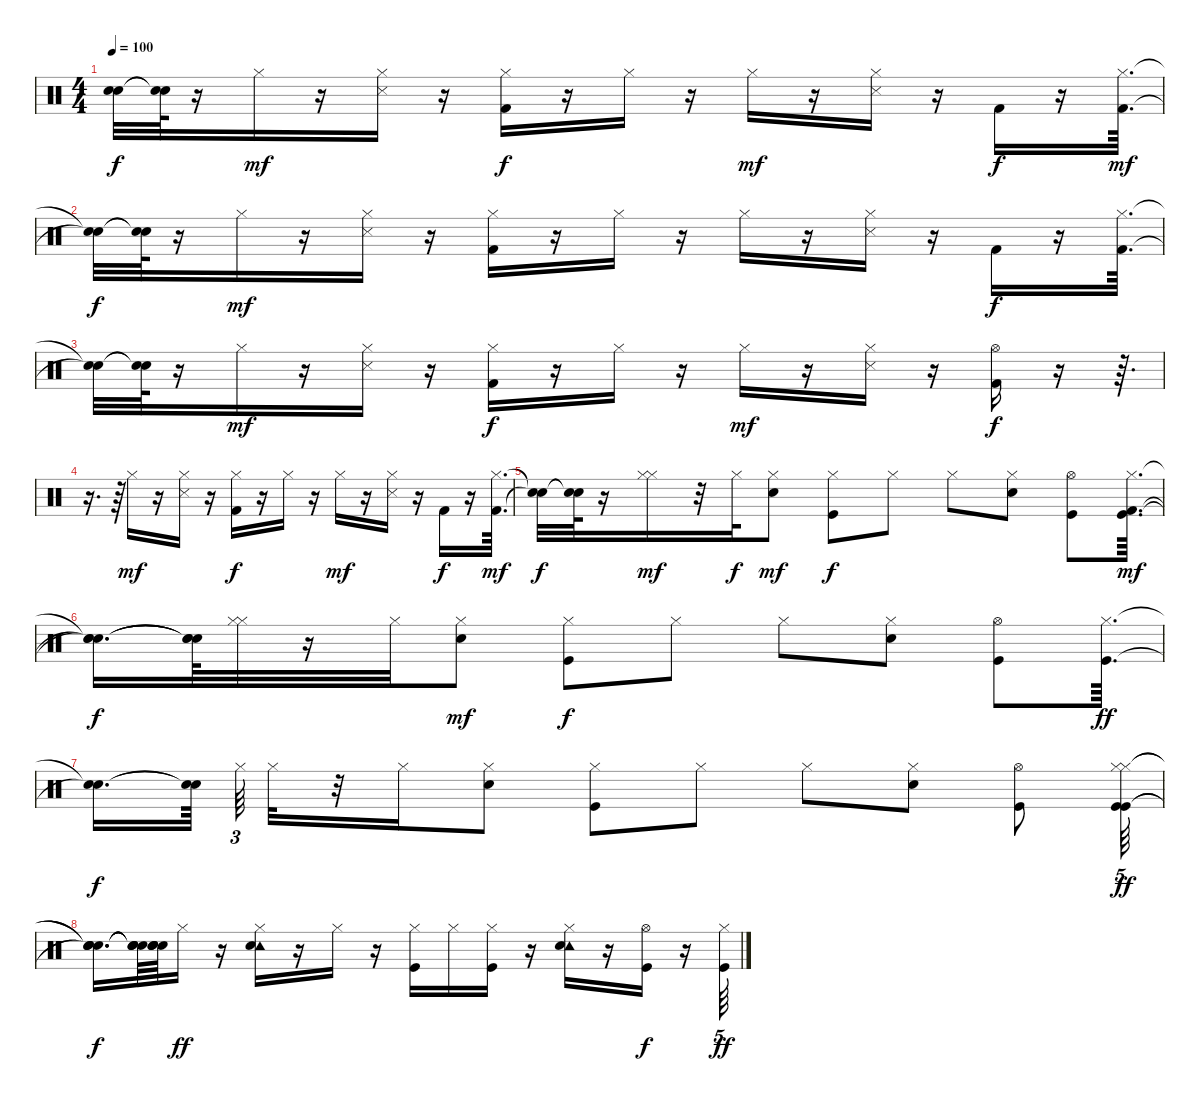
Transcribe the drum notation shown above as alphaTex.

\track "" {instrument percussion}
\staff {score}
\articulation defaults
\ts (4 4)
\tempo 100
\clef neutral
\ks c
("Snare (hit)"{t} "Snare (hit)"{t}).32{dy f} ("Snare (hit)"{t} "Snare (hit)"{t}).64 r.16 "Hi-Hat (closed)".16{dy mf} r.16 ("Hi-Hat (closed)" "Snare (side stick) 3").16 r.16 ("Kick (hit) 2" "Hi-Hat (closed)").16{dy f} r.16 "Hi-Hat (closed)".16 r.16 "Hi-Hat (closed)".16{dy mf} r.16 ("Hi-Hat (closed)" "Snare (side stick) 3").16 r.16 "Kick (hit) 2".16{dy f} r.16 ("Kick (hit) 2" "Hi-Hat (closed)").64{d dy mf} |
("Snare (hit)"{t} "Snare (hit)"{t}).32{dy f} ("Snare (hit)"{t} "Snare (hit)"{t}).64 r.16 "Hi-Hat (closed)".16{dy mf} r.16 ("Hi-Hat (closed)" "Snare (side stick) 3").16 r.16 ("Kick (hit) 2" "Hi-Hat (closed)").16 r.16 "Hi-Hat (closed)".16 r.16 "Hi-Hat (closed)".16 r.16 ("Hi-Hat (closed)" "Snare (side stick) 3").16 r.16 "Kick (hit) 2".16{dy f} r.16 ("Hi-Hat (closed)" "Kick (hit) 2").64{d} |
("Snare (hit)"{t} "Snare (hit)"{t}).32 ("Snare (hit)"{t} "Snare (hit)"{t}).64 r.16 "Hi-Hat (closed)".16{dy mf} r.16 ("Hi-Hat (closed)" "Snare (side stick) 3").16 r.16 ("Kick (hit) 2" "Hi-Hat (closed)").16{dy f} r.16 "Hi-Hat (closed)".16 r.16 "Hi-Hat (closed)".16{dy mf} r.16 ("Hi-Hat (closed)" "Snare (side stick) 3").16 r.16 ("Kick (hit) 2" "Hi-Hat (open)").16{dy f} r.16 r.64{d} |
r.16{d} r.64 "Hi-Hat (closed)".16{dy mf} r.16 ("Hi-Hat (closed)" "Snare (side stick) 3").16 r.16 ("Kick (hit) 2" "Hi-Hat (closed)").16{dy f} r.16 "Hi-Hat (closed)".16 r.16 "Hi-Hat (closed)".16{dy mf} r.16 ("Hi-Hat (closed)" "Snare (side stick) 3").16 r.16 "Kick (hit) 2".16{dy f} r.16 ("Kick (hit) 2" "Hi-Hat (closed)").64{d dy mf} |
("Snare (hit)"{t} "Snare (hit)"{t}).32{dy f} ("Snare (hit)"{t} "Snare (hit)"{t}).64 r.16 ("Hi-Hat (closed)" "Hi-Hat (closed)").16{dy mf} r.32 "Hi-Hat (closed)".32{dy f} ("Hi-Hat (closed)" "Snare (hit) 2").8{dy mf} ("Kick (hit)" "Hi-Hat (closed)").8{dy f} "Hi-Hat (closed)".8 "Hi-Hat (closed)".8 ("Hi-Hat (closed)" "Snare (hit) 2").8 ("Kick (hit)" "Hi-Hat (open)").8 ("Kick (hit)" "Kick (hit) 2" "Hi-Hat (closed)").64{d dy mf} |
("Snare (hit)"{t} "Snare (hit)"{t} "Snare (hit)"{t}).16{d dy f} ("Snare (hit)"{t} "Snare (hit)"{t} "Snare (hit)"{t}).64 ("Hi-Hat (closed)" "Hi-Hat (closed)").32 r.16 "Hi-Hat (closed)".32 ("Hi-Hat (closed)" "Snare (hit) 2").8{dy mf} ("Kick (hit)" "Hi-Hat (closed)").8{dy f} "Hi-Hat (closed)".8 "Hi-Hat (closed)".8 ("Snare (hit) 2" "Hi-Hat (closed)").8 ("Kick (hit)" "Hi-Hat (open)").8 ("Kick (hit)" "Hi-Hat (closed)").64{d dy ff} |
("Snare (hit)"{t} "Snare (hit)"{t}).16{d dy f} ("Snare (hit)"{t} "Snare (hit)"{t}).64{beam splitsecondary} "Hi-Hat (closed)".64{tu (3 2)} "Hi-Hat (closed)".32 r.32 "Hi-Hat (closed)".16 ("Snare (hit) 2" "Hi-Hat (closed)").8 ("Kick (hit)" "Hi-Hat (closed)").8 "Hi-Hat (closed)".8 "Hi-Hat (closed)".8 ("Snare (hit) 2" "Hi-Hat (closed)").8 ("Kick (hit)" "Hi-Hat (open)").8 ("Kick (hit)" "Hi-Hat (closed)" "Hi-Hat (closed)" "Kick (hit)").64{tu (5 4) dy ff} |
("Snare (hit)"{t} "Snare (hit)"{t} "Snare (hit)"{t} "Snare (hit)"{t}).16{d dy f} ("Snare (hit)"{t} "Snare (hit)"{t} "Snare (hit)"{t} "Snare (hit)"{t}).64 ("Snare (hit)"{t} "Snare (hit)"{t} "Snare (hit)"{t} "Snare (hit)"{t}).64 "Hi-Hat (closed)".16{dy ff} r.16 ("Hi-Hat (closed)" "Tambourine (hit)" "Electric Snare (hit)").16 r.16 "Hi-Hat (closed)".16 r.16 ("Hi-Hat (closed)" "Kick (hit)").16 "Hi-Hat (closed)".16 ("Hi-Hat (closed)" "Kick (hit)").16 r.16 ("Hi-Hat (closed)" "Tambourine (hit)" "Electric Snare (hit)").16 r.16 ("Hi-Hat (open)" "Kick (hit)").16{dy f} r.16 ("Hi-Hat (closed)" "Kick (hit)").64{tu (5 4) dy ff}
